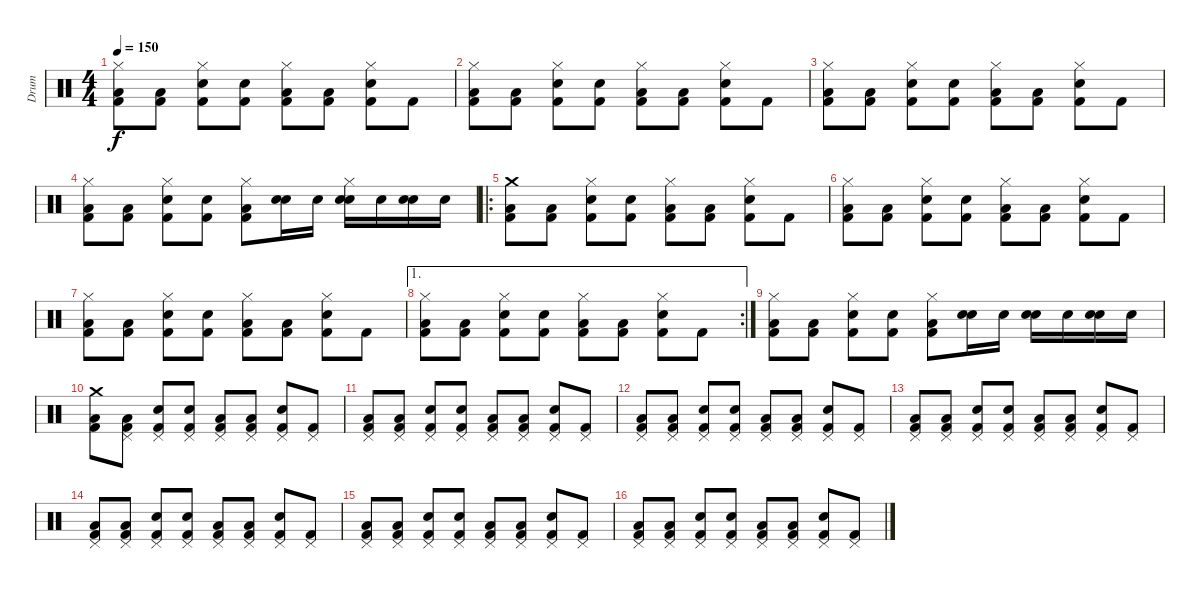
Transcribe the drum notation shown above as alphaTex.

\track ("Drum" "Drum") {instrument percussion}
\staff {score}
\articulation defaults
\ts (4 4)
\tempo 150
\clef neutral
\ks c
("Hi-Hat (closed)" "Low Floor Tom (hit)" "Kick (hit) 2").8{dy f} ("Low Floor Tom (hit)" "Kick (hit) 2").8 ("Hi-Hat (closed)" "Snare (hit) 2" "Kick (hit) 2").8 ("Snare (hit) 2" "Kick (hit) 2").8 ("Hi-Hat (closed)" "Low Floor Tom (hit)" "Kick (hit) 2").8 ("Low Floor Tom (hit)" "Kick (hit) 2").8 ("Hi-Hat (closed)" "Snare (hit) 2" "Kick (hit) 2").8 "Kick (hit) 2".8 |
("Hi-Hat (closed)" "Low Floor Tom (hit)" "Kick (hit) 2").8 ("Low Floor Tom (hit)" "Kick (hit) 2").8 ("Hi-Hat (closed)" "Snare (hit) 2" "Kick (hit) 2").8 ("Snare (hit) 2" "Kick (hit) 2").8 ("Hi-Hat (closed)" "Low Floor Tom (hit)" "Kick (hit) 2").8 ("Low Floor Tom (hit)" "Kick (hit) 2").8 ("Hi-Hat (closed)" "Snare (hit) 2" "Kick (hit) 2").8 "Kick (hit) 2".8 |
("Hi-Hat (closed)" "Low Floor Tom (hit)" "Kick (hit) 2").8 ("Low Floor Tom (hit)" "Kick (hit) 2").8 ("Hi-Hat (closed)" "Snare (hit) 2" "Kick (hit) 2").8 ("Snare (hit) 2" "Kick (hit) 2").8 ("Hi-Hat (closed)" "Low Floor Tom (hit)" "Kick (hit) 2").8 ("Low Floor Tom (hit)" "Kick (hit) 2").8 ("Hi-Hat (closed)" "Snare (hit) 2" "Kick (hit) 2").8 "Kick (hit) 2".8 |
("Hi-Hat (closed)" "Low Floor Tom (hit)" "Kick (hit) 2").8 ("Low Floor Tom (hit)" "Kick (hit) 2").8 ("Hi-Hat (closed)" "Snare (hit) 2" "Kick (hit) 2").8 ("Snare (hit) 2" "Kick (hit) 2").8 ("Hi-Hat (closed)" "Low Floor Tom (hit)" "Kick (hit) 2").8 ("Electric Snare (hit)" "Snare (hit) 2").16 "Electric Snare (hit)".16 ("Hi-Hat (closed)" "Electric Snare (hit)" "Snare (hit) 2").16 "Electric Snare (hit)".16 ("Electric Snare (hit)" "Snare (hit) 2").16 "Electric Snare (hit)".16 |
\ro
("Crash medium (hit)" "Low Floor Tom (hit)" "Kick (hit) 2").8 ("Low Floor Tom (hit)" "Kick (hit) 2").8 ("Hi-Hat (closed)" "Snare (hit) 2" "Kick (hit) 2").8 ("Snare (hit) 2" "Kick (hit) 2").8 ("Hi-Hat (closed)" "Low Floor Tom (hit)" "Kick (hit) 2").8 ("Low Floor Tom (hit)" "Kick (hit) 2").8 ("Hi-Hat (closed)" "Snare (hit) 2" "Kick (hit) 2").8 "Kick (hit) 2".8 |
("Hi-Hat (closed)" "Low Floor Tom (hit)" "Kick (hit) 2").8 ("Low Floor Tom (hit)" "Kick (hit) 2").8 ("Hi-Hat (closed)" "Snare (hit) 2" "Kick (hit) 2").8 ("Snare (hit) 2" "Kick (hit) 2").8 ("Hi-Hat (closed)" "Low Floor Tom (hit)" "Kick (hit) 2").8 ("Low Floor Tom (hit)" "Kick (hit) 2").8 ("Hi-Hat (closed)" "Snare (hit) 2" "Kick (hit) 2").8 "Kick (hit) 2".8 |
("Hi-Hat (closed)" "Low Floor Tom (hit)" "Kick (hit) 2").8 ("Low Floor Tom (hit)" "Kick (hit) 2").8 ("Hi-Hat (closed)" "Snare (hit) 2" "Kick (hit) 2").8 ("Snare (hit) 2" "Kick (hit) 2").8 ("Hi-Hat (closed)" "Low Floor Tom (hit)" "Kick (hit) 2").8 ("Low Floor Tom (hit)" "Kick (hit) 2").8 ("Hi-Hat (closed)" "Snare (hit) 2" "Kick (hit) 2").8 "Kick (hit) 2".8 |
\ae 1
\rc 2
("Hi-Hat (closed)" "Low Floor Tom (hit)" "Kick (hit) 2").8 ("Low Floor Tom (hit)" "Kick (hit) 2").8 ("Hi-Hat (closed)" "Snare (hit) 2" "Kick (hit) 2").8 ("Snare (hit) 2" "Kick (hit) 2").8 ("Hi-Hat (closed)" "Low Floor Tom (hit)" "Kick (hit) 2").8 ("Low Floor Tom (hit)" "Kick (hit) 2").8 ("Hi-Hat (closed)" "Snare (hit) 2" "Kick (hit) 2").8 "Kick (hit) 2".8 |
("Hi-Hat (closed)" "Low Floor Tom (hit)" "Kick (hit) 2").8 ("Low Floor Tom (hit)" "Kick (hit) 2").8 ("Hi-Hat (closed)" "Snare (hit) 2" "Kick (hit) 2").8 ("Snare (hit) 2" "Kick (hit) 2").8 ("Hi-Hat (closed)" "Low Floor Tom (hit)" "Kick (hit) 2").8 ("Electric Snare (hit)" "Snare (hit) 2").16 "Electric Snare (hit)".16 ("Electric Snare (hit)" "Snare (hit) 2").16 "Electric Snare (hit)".16 ("Electric Snare (hit)" "Snare (hit) 2").16 "Electric Snare (hit)".16 |
("Crash medium (hit)" "Low Floor Tom (hit)" "Kick (hit) 2").8 ("Pedal Hi-Hat (hit)" "Low Floor Tom (hit)" "Kick (hit) 2").8 ("Pedal Hi-Hat (hit)" "Snare (hit) 2" "Kick (hit) 2").8 ("Pedal Hi-Hat (hit)" "Snare (hit) 2" "Kick (hit) 2").8 ("Pedal Hi-Hat (hit)" "Low Floor Tom (hit)" "Kick (hit) 2").8 ("Pedal Hi-Hat (hit)" "Low Floor Tom (hit)" "Kick (hit) 2").8 ("Pedal Hi-Hat (hit)" "Snare (hit) 2" "Kick (hit) 2").8 ("Pedal Hi-Hat (hit)" "Kick (hit) 2").8 |
("Pedal Hi-Hat (hit)" "Low Floor Tom (hit)" "Kick (hit) 2").8 ("Pedal Hi-Hat (hit)" "Low Floor Tom (hit)" "Kick (hit) 2").8 ("Pedal Hi-Hat (hit)" "Snare (hit) 2" "Kick (hit) 2").8 ("Pedal Hi-Hat (hit)" "Snare (hit) 2" "Kick (hit) 2").8 ("Pedal Hi-Hat (hit)" "Low Floor Tom (hit)" "Kick (hit) 2").8 ("Pedal Hi-Hat (hit)" "Low Floor Tom (hit)" "Kick (hit) 2").8 ("Pedal Hi-Hat (hit)" "Snare (hit) 2" "Kick (hit) 2").8 ("Pedal Hi-Hat (hit)" "Kick (hit) 2").8 |
("Pedal Hi-Hat (hit)" "Low Floor Tom (hit)" "Kick (hit) 2").8 ("Pedal Hi-Hat (hit)" "Low Floor Tom (hit)" "Kick (hit) 2").8 ("Pedal Hi-Hat (hit)" "Snare (hit) 2" "Kick (hit) 2").8 ("Pedal Hi-Hat (hit)" "Snare (hit) 2" "Kick (hit) 2").8 ("Pedal Hi-Hat (hit)" "Low Floor Tom (hit)" "Kick (hit) 2").8 ("Pedal Hi-Hat (hit)" "Low Floor Tom (hit)" "Kick (hit) 2").8 ("Pedal Hi-Hat (hit)" "Snare (hit) 2" "Kick (hit) 2").8 ("Pedal Hi-Hat (hit)" "Kick (hit) 2").8 |
("Pedal Hi-Hat (hit)" "Low Floor Tom (hit)" "Kick (hit) 2").8 ("Pedal Hi-Hat (hit)" "Low Floor Tom (hit)" "Kick (hit) 2").8 ("Pedal Hi-Hat (hit)" "Snare (hit) 2" "Kick (hit) 2").8 ("Pedal Hi-Hat (hit)" "Snare (hit) 2" "Kick (hit) 2").8 ("Pedal Hi-Hat (hit)" "Low Floor Tom (hit)" "Kick (hit) 2").8 ("Pedal Hi-Hat (hit)" "Low Floor Tom (hit)" "Kick (hit) 2").8 ("Pedal Hi-Hat (hit)" "Snare (hit) 2" "Kick (hit) 2").8 ("Pedal Hi-Hat (hit)" "Kick (hit) 2").8 |
("Pedal Hi-Hat (hit)" "Low Floor Tom (hit)" "Kick (hit) 2").8 ("Pedal Hi-Hat (hit)" "Low Floor Tom (hit)" "Kick (hit) 2").8 ("Pedal Hi-Hat (hit)" "Snare (hit) 2" "Kick (hit) 2").8 ("Pedal Hi-Hat (hit)" "Snare (hit) 2" "Kick (hit) 2").8 ("Pedal Hi-Hat (hit)" "Low Floor Tom (hit)" "Kick (hit) 2").8 ("Pedal Hi-Hat (hit)" "Low Floor Tom (hit)" "Kick (hit) 2").8 ("Pedal Hi-Hat (hit)" "Snare (hit) 2" "Kick (hit) 2").8 ("Pedal Hi-Hat (hit)" "Kick (hit) 2").8 |
("Pedal Hi-Hat (hit)" "Low Floor Tom (hit)" "Kick (hit) 2").8 ("Pedal Hi-Hat (hit)" "Low Floor Tom (hit)" "Kick (hit) 2").8 ("Pedal Hi-Hat (hit)" "Snare (hit) 2" "Kick (hit) 2").8 ("Pedal Hi-Hat (hit)" "Snare (hit) 2" "Kick (hit) 2").8 ("Pedal Hi-Hat (hit)" "Low Floor Tom (hit)" "Kick (hit) 2").8 ("Pedal Hi-Hat (hit)" "Low Floor Tom (hit)" "Kick (hit) 2").8 ("Pedal Hi-Hat (hit)" "Snare (hit) 2" "Kick (hit) 2").8 ("Pedal Hi-Hat (hit)" "Kick (hit) 2").8 |
("Pedal Hi-Hat (hit)" "Low Floor Tom (hit)" "Kick (hit) 2").8 ("Pedal Hi-Hat (hit)" "Low Floor Tom (hit)" "Kick (hit) 2").8 ("Pedal Hi-Hat (hit)" "Snare (hit) 2" "Kick (hit) 2").8 ("Pedal Hi-Hat (hit)" "Snare (hit) 2" "Kick (hit) 2").8 ("Pedal Hi-Hat (hit)" "Low Floor Tom (hit)" "Kick (hit) 2").8 ("Pedal Hi-Hat (hit)" "Low Floor Tom (hit)" "Kick (hit) 2").8 ("Pedal Hi-Hat (hit)" "Snare (hit) 2" "Kick (hit) 2").8 ("Pedal Hi-Hat (hit)" "Kick (hit) 2").8
